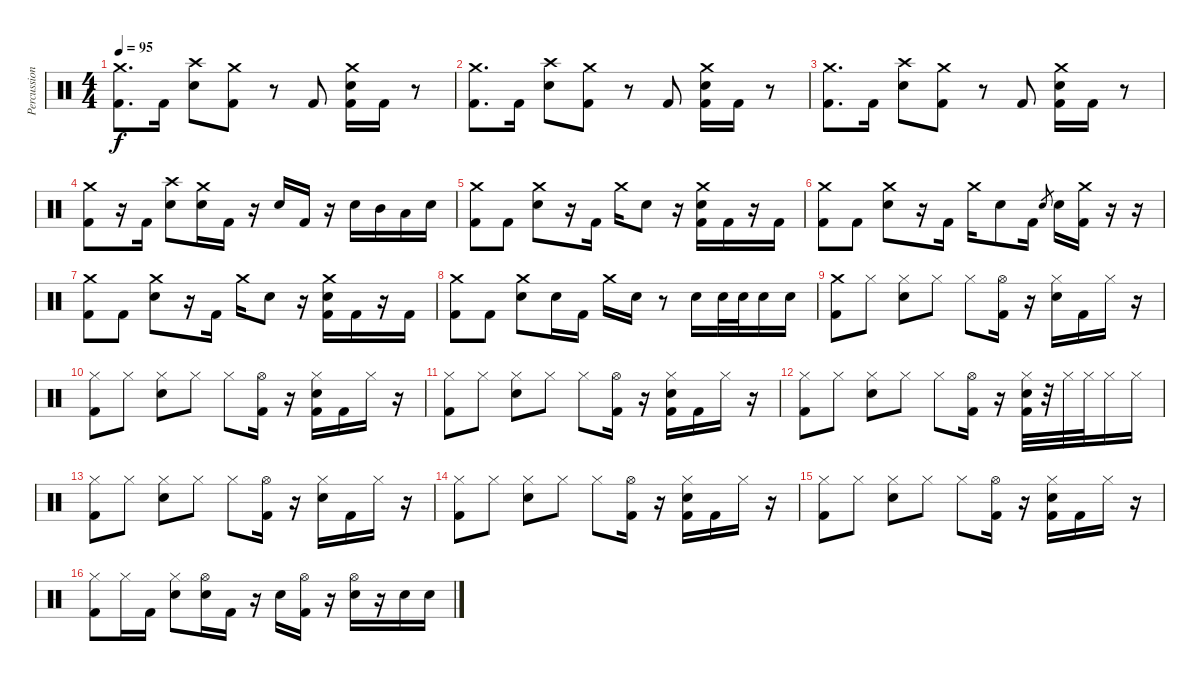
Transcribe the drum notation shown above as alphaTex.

\track ("Percussion" "Percussion") {instrument percussion}
\staff {score}
\articulation defaults
\ts (4 4)
\tempo 95
\clef neutral
\ks c
("Crash medium (hit)" "Kick (hit) 2").8{d dy f} "Kick (hit) 2".16 ("Crash high (hit)" "Electric Snare (hit)").8 ("Crash medium (hit)" "Kick (hit) 2").8 r.8 "Kick (hit) 2".8 ("Crash medium (hit)" "Electric Snare (hit)" "Kick (hit) 2").16 "Kick (hit) 2".16 r.8 |
("Crash medium (hit)" "Kick (hit) 2").8{d} "Kick (hit) 2".16 ("Crash high (hit)" "Electric Snare (hit)").8 ("Crash medium (hit)" "Kick (hit) 2").8 r.8 "Kick (hit) 2".8 ("Crash medium (hit)" "Electric Snare (hit)" "Kick (hit) 2").16 "Kick (hit) 2".16 r.8 |
("Crash medium (hit)" "Kick (hit) 2").8{d} "Kick (hit) 2".16 ("Crash high (hit)" "Electric Snare (hit)").8 ("Crash medium (hit)" "Kick (hit) 2").8 r.8 "Kick (hit) 2".8 ("Crash medium (hit)" "Electric Snare (hit)" "Kick (hit) 2").16 "Kick (hit) 2".16 r.8 |
("Crash medium (hit)" "Kick (hit) 2").8 r.16 "Kick (hit) 2".16 ("Crash high (hit)" "Electric Snare (hit)").8 ("Crash medium (hit)" "Electric Snare (hit)").16 "Kick (hit) 2".16 r.16 "Electric Snare (hit)".16 "Kick (hit) 2".16 r.16 "Electric Snare (hit)".16 "Mid Tom (hit)".16 "Low Tom (hit)".16 "Electric Snare (hit)".16 |
("Crash medium (hit)" "Kick (hit) 2").8 "Kick (hit) 2".8 ("Crash medium (hit)" "Electric Snare (hit)").8 r.16 "Kick (hit) 2".16 "Crash medium (hit)".16 "Electric Snare (hit)".8 r.16 ("Crash medium (hit)" "Electric Snare (hit)" "Kick (hit) 2").16 "Kick (hit) 2".16 r.16 "Kick (hit) 2".16 |
("Crash medium (hit)" "Kick (hit) 2").8 "Kick (hit) 2".8 ("Crash medium (hit)" "Electric Snare (hit)").8 r.16 "Kick (hit) 2".16 "Crash medium (hit)".16 "Electric Snare (hit)".8 "Kick (hit) 2".16 "Electric Snare (hit)".8{gr} "Electric Snare (hit)".16 ("Crash medium (hit)" "Kick (hit) 2").16 r.16 r.16 |
("Crash medium (hit)" "Kick (hit) 2").8 "Kick (hit) 2".8 ("Crash medium (hit)" "Electric Snare (hit)").8 r.16 "Kick (hit) 2".16 "Crash medium (hit)".16 "Electric Snare (hit)".8 r.16 ("Crash medium (hit)" "Electric Snare (hit)" "Kick (hit) 2").16 "Kick (hit) 2".16 r.16 "Kick (hit) 2".16 |
("Crash medium (hit)" "Kick (hit) 2").8 "Kick (hit) 2".8 ("Crash medium (hit)" "Electric Snare (hit)").8 "Electric Snare (hit)".16 "Kick (hit) 2".16 "Crash medium (hit)".16 "Electric Snare (hit)".16 r.8 "Electric Snare (hit)".16 "Electric Snare (hit)".32 "Electric Snare (hit)".32 "Electric Snare (hit)".16 "Electric Snare (hit)".16 |
("Crash medium (hit)" "Kick (hit) 2").8 "Hi-Hat (closed)".8 ("Hi-Hat (closed)" "Electric Snare (hit)").8 "Hi-Hat (closed)".8 "Hi-Hat (closed)".8 ("Hi-Hat (open)" "Kick (hit) 2").16 r.16 ("Hi-Hat (closed)" "Electric Snare (hit)").16 "Kick (hit) 2".16 "Hi-Hat (closed)".16 r.16 |
("Hi-Hat (closed)" "Kick (hit) 2").8 "Hi-Hat (closed)".8 ("Hi-Hat (closed)" "Electric Snare (hit)").8 "Hi-Hat (closed)".8 "Hi-Hat (closed)".8 ("Hi-Hat (open)" "Kick (hit) 2").16 r.16 ("Hi-Hat (closed)" "Electric Snare (hit)" "Kick (hit) 2").16 "Kick (hit) 2".16 "Hi-Hat (closed)".16 r.16 |
("Hi-Hat (closed)" "Kick (hit) 2").8 "Hi-Hat (closed)".8 ("Hi-Hat (closed)" "Electric Snare (hit)").8 "Hi-Hat (closed)".8 "Hi-Hat (closed)".8 ("Hi-Hat (open)" "Kick (hit) 2").16 r.16 ("Hi-Hat (closed)" "Electric Snare (hit)" "Kick (hit) 2").16 "Kick (hit) 2".16 "Hi-Hat (closed)".16 r.16 |
("Hi-Hat (closed)" "Kick (hit) 2").8 "Hi-Hat (closed)".8 ("Hi-Hat (closed)" "Electric Snare (hit)").8 "Hi-Hat (closed)".8 "Hi-Hat (closed)".8 ("Hi-Hat (open)" "Kick (hit) 2").16 r.16 ("Hi-Hat (closed)" "Electric Snare (hit)" "Kick (hit) 2").32 r.32 "Hi-Hat (closed)".32 "Hi-Hat (closed)".32 "Hi-Hat (closed)".16 "Hi-Hat (closed)".16 |
("Hi-Hat (closed)" "Kick (hit) 2").8 "Hi-Hat (closed)".8 ("Hi-Hat (closed)" "Electric Snare (hit)").8 "Hi-Hat (closed)".8 "Hi-Hat (closed)".8 ("Hi-Hat (open)" "Kick (hit) 2").16 r.16 ("Hi-Hat (closed)" "Electric Snare (hit)").16 "Kick (hit) 2".16 "Hi-Hat (closed)".16 r.16 |
("Hi-Hat (closed)" "Kick (hit) 2").8 "Hi-Hat (closed)".8 ("Hi-Hat (closed)" "Electric Snare (hit)").8 "Hi-Hat (closed)".8 "Hi-Hat (closed)".8 ("Hi-Hat (open)" "Kick (hit) 2").16 r.16 ("Hi-Hat (closed)" "Electric Snare (hit)" "Kick (hit) 2").16 "Kick (hit) 2".16 "Hi-Hat (closed)".16 r.16 |
("Hi-Hat (closed)" "Kick (hit) 2").8 "Hi-Hat (closed)".8 ("Hi-Hat (closed)" "Electric Snare (hit)").8 "Hi-Hat (closed)".8 "Hi-Hat (closed)".8 ("Hi-Hat (open)" "Kick (hit) 2").16 r.16 ("Hi-Hat (closed)" "Electric Snare (hit)" "Kick (hit) 2").16 "Kick (hit) 2".16 "Hi-Hat (closed)".16 r.16 |
("Hi-Hat (closed)" "Kick (hit) 2").8 "Hi-Hat (closed)".16 "Kick (hit) 2".16 ("Hi-Hat (closed)" "Electric Snare (hit)").8 ("Hi-Hat (open)" "Electric Snare (hit)").16 "Kick (hit) 2".16 r.16 "Electric Snare (hit)".16 ("Hi-Hat (open)" "Kick (hit) 2").16 r.16 ("Hi-Hat (open)" "Electric Snare (hit)").16 r.16 "Electric Snare (hit)".16 "Electric Snare (hit)".16
